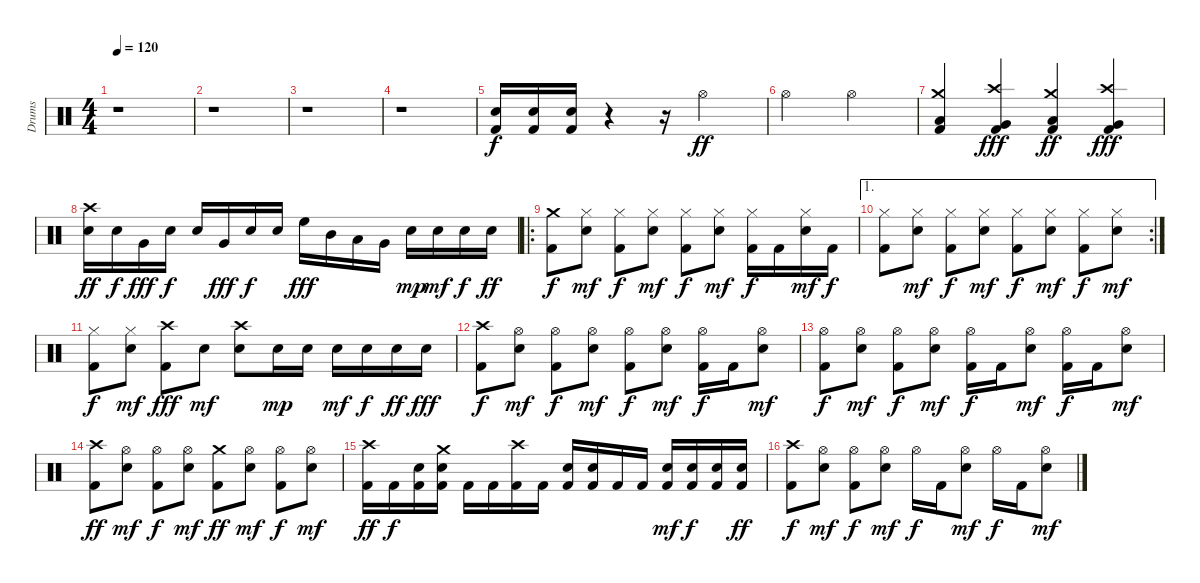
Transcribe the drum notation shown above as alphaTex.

\track ("Drums" "Drums") {instrument percussion}
\staff {score}
\articulation defaults
\ts (4 4)
\tempo 120
\clef neutral
\ks c
r.1{dy f} |
r.1 |
r.1 |
r.1 |
("Snare (hit) 2" "Kick (hit) 2").16 ("Snare (hit) 2" "Kick (hit) 2").16 ("Snare (hit) 2" "Kick (hit) 2").16 r.4 r.16 "Hi-Hat (open)".2{dy ff} |
"Hi-Hat (open)".2 "Hi-Hat (open)".2 |
("Crash medium (hit)" "Low Floor Tom (hit)" "Kick (hit) 2").4{balance 4} ("Crash high (hit)" "Very Low Tom (hit)" "Kick (hit) 2").4{dy fff balance 12} ("Crash medium (hit)" "Low Floor Tom (hit)" "Kick (hit) 2").4{dy ff balance 4} ("Crash high (hit)" "Very Low Tom (hit)" "Kick (hit) 2").4{dy fff balance 12} |
("Crash high (hit)" "Snare (hit) 2").16{dy ff balance 8} "Snare (hit) 2".16{dy f} "Very Low Tom (hit)".16{dy fff} "Snare (hit) 2".16{dy f} "Snare (hit) 2".16 "Very Low Tom (hit)".16{dy fff} "Snare (hit) 2".16{dy f} "Snare (hit) 2".16 "High Floor Tom (hit)".16{dy fff} "Mid Tom (hit)".16 "Low Tom (hit)".16 "Very Low Tom (hit)".16 "Snare (hit) 2".16{dy mp} "Snare (hit) 2".16{dy mf} "Snare (hit) 2".16{dy f} "Snare (hit) 2".16{dy ff} |
\ro
("Crash medium (hit)" "Kick (hit) 2").8{dy f} ("Hi-Hat (closed)" "Snare (hit) 2").8{dy mf} ("Hi-Hat (closed)" "Kick (hit) 2").8{dy f} ("Hi-Hat (closed)" "Snare (hit) 2").8{dy mf} ("Hi-Hat (closed)" "Kick (hit) 2").8{dy f} ("Hi-Hat (closed)" "Snare (hit) 2").8{dy mf} ("Hi-Hat (closed)" "Kick (hit) 2").16{dy f} "Kick (hit) 2".16 ("Hi-Hat (closed)" "Snare (hit) 2").16{dy mf} "Kick (hit) 2".16{dy f} |
\ae 1
\rc 2
("Hi-Hat (closed)" "Kick (hit) 2").8 ("Hi-Hat (closed)" "Snare (hit) 2").8{dy mf} ("Hi-Hat (closed)" "Kick (hit) 2").8{dy f} ("Hi-Hat (closed)" "Snare (hit) 2").8{dy mf} ("Hi-Hat (closed)" "Kick (hit) 2").8{dy f} ("Hi-Hat (closed)" "Snare (hit) 2").8{dy mf} ("Hi-Hat (closed)" "Kick (hit) 2").8{dy f} ("Hi-Hat (closed)" "Snare (hit) 2").8{dy mf} |
("Hi-Hat (closed)" "Kick (hit) 2").8{dy f} ("Hi-Hat (closed)" "Snare (hit) 2").8{dy mf} ("Crash high (hit)" "Kick (hit) 2").8{dy fff} "Snare (hit) 2".8{dy mf} ("Crash high (hit)" "Snare (hit) 2").8 "Snare (hit) 2".16{dy mp} "Snare (hit) 2".16 "Snare (hit) 2".16{dy mf} "Snare (hit) 2".16{dy f} "Snare (hit) 2".16{dy ff} "Snare (hit) 2".16{dy fff} |
("Crash high (hit)" "Kick (hit) 2").8{dy f} ("Hi-Hat (open)" "Snare (hit) 2").8{dy mf} ("Hi-Hat (open)" "Kick (hit) 2").8{dy f} ("Hi-Hat (open)" "Snare (hit) 2").8{dy mf} ("Hi-Hat (open)" "Kick (hit) 2").8{dy f} ("Hi-Hat (open)" "Snare (hit) 2").8{dy mf} ("Hi-Hat (open)" "Kick (hit) 2").16{dy f} "Kick (hit) 2".16 ("Hi-Hat (open)" "Snare (hit) 2").8{dy mf} |
("Hi-Hat (open)" "Kick (hit) 2").8{dy f} ("Hi-Hat (open)" "Snare (hit) 2").8{dy mf} ("Hi-Hat (open)" "Kick (hit) 2").8{dy f} ("Hi-Hat (open)" "Snare (hit) 2").8{dy mf} ("Hi-Hat (open)" "Kick (hit) 2").16{dy f} "Kick (hit) 2".16 ("Hi-Hat (open)" "Snare (hit) 2").8{dy mf} ("Hi-Hat (open)" "Kick (hit) 2").16{dy f} "Kick (hit) 2".16 ("Hi-Hat (open)" "Snare (hit) 2").8{dy mf} |
("Crash high (hit)" "Kick (hit) 2").8{dy ff} ("Hi-Hat (open)" "Snare (hit) 2").8{dy mf} ("Hi-Hat (open)" "Kick (hit) 2").8{dy f} ("Hi-Hat (open)" "Snare (hit) 2").8{dy mf} ("Crash medium (hit)" "Kick (hit) 2").8{dy ff} ("Hi-Hat (open)" "Snare (hit) 2").8{dy mf} ("Hi-Hat (open)" "Kick (hit) 2").8{dy f} ("Hi-Hat (open)" "Snare (hit) 2").8{dy mf} |
("Crash high (hit)" "Kick (hit) 2").16{dy ff} "Kick (hit) 2".16{dy f} ("Snare (hit) 2" "Kick (hit) 2").16 ("Crash medium (hit)" "Snare (hit) 2" "Kick (hit) 2").16 "Kick (hit) 2".16 "Kick (hit) 2".16 ("Crash high (hit)" "Kick (hit) 2").16 "Kick (hit) 2".16 ("Snare (hit) 2" "Kick (hit) 2").16 ("Snare (hit) 2" "Kick (hit) 2").16 "Kick (hit) 2".16 "Kick (hit) 2".16 ("Snare (hit) 2" "Kick (hit) 2").16{dy mf} ("Snare (hit) 2" "Kick (hit) 2").16{dy f} ("Snare (hit) 2" "Kick (hit) 2").16 ("Snare (hit) 2" "Kick (hit) 2").16{dy ff} |
("Crash high (hit)" "Kick (hit) 2").8{dy f} ("Hi-Hat (open)" "Snare (hit) 2").8{dy mf} ("Hi-Hat (open)" "Kick (hit) 2").8{dy f} ("Hi-Hat (open)" "Snare (hit) 2").8{dy mf} "Hi-Hat (open)".16{dy f} "Kick (hit) 2".16 ("Hi-Hat (open)" "Snare (hit) 2").8{dy mf} "Hi-Hat (open)".16{dy f} "Kick (hit) 2".16 ("Hi-Hat (open)" "Snare (hit) 2").8{dy mf}
